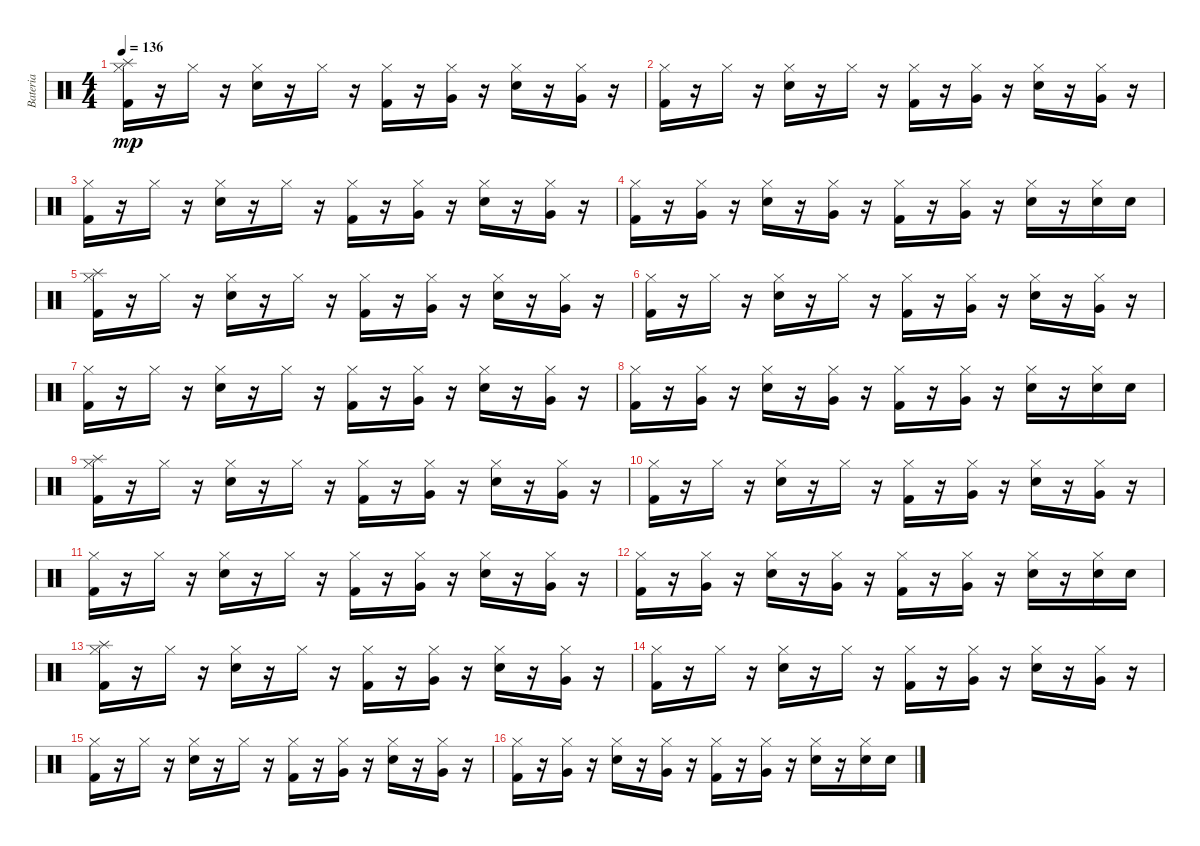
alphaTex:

\track ("Bateria" "Bateria") {instrument percussion}
\staff {score}
\articulation defaults
\ts (4 4)
\tempo 136
\clef neutral
\ks c
("Kick (hit) 2" "Hi-Hat (closed)" "Splash (hit)").16{dy mp} r.16 "Hi-Hat (closed)".16 r.16 ("Snare (hit) 2" "Hi-Hat (closed)").16 r.16 "Hi-Hat (closed)".16 r.16 ("Kick (hit) 2" "Hi-Hat (closed)").16 r.16 ("Hi-Hat (closed)" "Very Low Tom (hit)").16 r.16 ("Snare (hit) 2" "Hi-Hat (closed)").16 r.16 ("Hi-Hat (closed)" "Very Low Tom (hit)").16 r.16 |
("Kick (hit) 2" "Hi-Hat (closed)").16 r.16 "Hi-Hat (closed)".16 r.16 ("Snare (hit) 2" "Hi-Hat (closed)").16 r.16 "Hi-Hat (closed)".16 r.16 ("Kick (hit) 2" "Hi-Hat (closed)").16 r.16 ("Hi-Hat (closed)" "Very Low Tom (hit)").16 r.16 ("Snare (hit) 2" "Hi-Hat (closed)").16 r.16 ("Hi-Hat (closed)" "Very Low Tom (hit)").16 r.16 |
("Kick (hit) 2" "Hi-Hat (closed)").16 r.16 "Hi-Hat (closed)".16 r.16 ("Snare (hit) 2" "Hi-Hat (closed)").16 r.16 "Hi-Hat (closed)".16 r.16 ("Kick (hit) 2" "Hi-Hat (closed)").16 r.16 ("Hi-Hat (closed)" "Very Low Tom (hit)").16 r.16 ("Snare (hit) 2" "Hi-Hat (closed)").16 r.16 ("Hi-Hat (closed)" "Very Low Tom (hit)").16 r.16 |
("Kick (hit) 2" "Hi-Hat (closed)").16 r.16 ("Hi-Hat (closed)" "Very Low Tom (hit)").16 r.16 ("Snare (hit) 2" "Hi-Hat (closed)").16 r.16 ("Hi-Hat (closed)" "Very Low Tom (hit)").16 r.16 ("Kick (hit) 2" "Hi-Hat (closed)").16 r.16 ("Hi-Hat (closed)" "Very Low Tom (hit)").16 r.16 ("Snare (hit) 2" "Hi-Hat (closed)").16 r.16 ("Snare (hit) 2" "Hi-Hat (closed)").16 "Snare (hit) 2".16 |
("Kick (hit) 2" "Hi-Hat (closed)" "Splash (hit)").16 r.16 "Hi-Hat (closed)".16 r.16 ("Snare (hit) 2" "Hi-Hat (closed)").16 r.16 "Hi-Hat (closed)".16 r.16 ("Kick (hit) 2" "Hi-Hat (closed)").16 r.16 ("Hi-Hat (closed)" "Very Low Tom (hit)").16 r.16 ("Snare (hit) 2" "Hi-Hat (closed)").16 r.16 ("Hi-Hat (closed)" "Very Low Tom (hit)").16 r.16 |
("Kick (hit) 2" "Hi-Hat (closed)").16 r.16 "Hi-Hat (closed)".16 r.16 ("Snare (hit) 2" "Hi-Hat (closed)").16 r.16 "Hi-Hat (closed)".16 r.16 ("Kick (hit) 2" "Hi-Hat (closed)").16 r.16 ("Hi-Hat (closed)" "Very Low Tom (hit)").16 r.16 ("Snare (hit) 2" "Hi-Hat (closed)").16 r.16 ("Hi-Hat (closed)" "Very Low Tom (hit)").16 r.16 |
("Kick (hit) 2" "Hi-Hat (closed)").16 r.16 "Hi-Hat (closed)".16 r.16 ("Snare (hit) 2" "Hi-Hat (closed)").16 r.16 "Hi-Hat (closed)".16 r.16 ("Kick (hit) 2" "Hi-Hat (closed)").16 r.16 ("Hi-Hat (closed)" "Very Low Tom (hit)").16 r.16 ("Snare (hit) 2" "Hi-Hat (closed)").16 r.16 ("Hi-Hat (closed)" "Very Low Tom (hit)").16 r.16 |
("Kick (hit) 2" "Hi-Hat (closed)").16 r.16 ("Hi-Hat (closed)" "Very Low Tom (hit)").16 r.16 ("Snare (hit) 2" "Hi-Hat (closed)").16 r.16 ("Hi-Hat (closed)" "Very Low Tom (hit)").16 r.16 ("Kick (hit) 2" "Hi-Hat (closed)").16 r.16 ("Hi-Hat (closed)" "Very Low Tom (hit)").16 r.16 ("Snare (hit) 2" "Hi-Hat (closed)").16 r.16 ("Snare (hit) 2" "Hi-Hat (closed)").16 "Snare (hit) 2".16 |
("Kick (hit) 2" "Hi-Hat (closed)" "Splash (hit)").16 r.16 "Hi-Hat (closed)".16 r.16 ("Snare (hit) 2" "Hi-Hat (closed)").16 r.16 "Hi-Hat (closed)".16 r.16 ("Kick (hit) 2" "Hi-Hat (closed)").16 r.16 ("Hi-Hat (closed)" "Very Low Tom (hit)").16 r.16 ("Snare (hit) 2" "Hi-Hat (closed)").16 r.16 ("Hi-Hat (closed)" "Very Low Tom (hit)").16 r.16 |
("Kick (hit) 2" "Hi-Hat (closed)").16 r.16 "Hi-Hat (closed)".16 r.16 ("Snare (hit) 2" "Hi-Hat (closed)").16 r.16 "Hi-Hat (closed)".16 r.16 ("Kick (hit) 2" "Hi-Hat (closed)").16 r.16 ("Hi-Hat (closed)" "Very Low Tom (hit)").16 r.16 ("Snare (hit) 2" "Hi-Hat (closed)").16 r.16 ("Hi-Hat (closed)" "Very Low Tom (hit)").16 r.16 |
("Kick (hit) 2" "Hi-Hat (closed)").16 r.16 "Hi-Hat (closed)".16 r.16 ("Snare (hit) 2" "Hi-Hat (closed)").16 r.16 "Hi-Hat (closed)".16 r.16 ("Kick (hit) 2" "Hi-Hat (closed)").16 r.16 ("Hi-Hat (closed)" "Very Low Tom (hit)").16 r.16 ("Snare (hit) 2" "Hi-Hat (closed)").16 r.16 ("Hi-Hat (closed)" "Very Low Tom (hit)").16 r.16 |
("Kick (hit) 2" "Hi-Hat (closed)").16 r.16 ("Hi-Hat (closed)" "Very Low Tom (hit)").16 r.16 ("Snare (hit) 2" "Hi-Hat (closed)").16 r.16 ("Hi-Hat (closed)" "Very Low Tom (hit)").16 r.16 ("Kick (hit) 2" "Hi-Hat (closed)").16 r.16 ("Hi-Hat (closed)" "Very Low Tom (hit)").16 r.16 ("Snare (hit) 2" "Hi-Hat (closed)").16 r.16 ("Snare (hit) 2" "Hi-Hat (closed)").16 "Snare (hit) 2".16 |
("Kick (hit) 2" "Hi-Hat (closed)" "Splash (hit)").16 r.16 "Hi-Hat (closed)".16 r.16 ("Snare (hit) 2" "Hi-Hat (closed)").16 r.16 "Hi-Hat (closed)".16 r.16 ("Kick (hit) 2" "Hi-Hat (closed)").16 r.16 ("Hi-Hat (closed)" "Very Low Tom (hit)").16 r.16 ("Snare (hit) 2" "Hi-Hat (closed)").16 r.16 ("Hi-Hat (closed)" "Very Low Tom (hit)").16 r.16 |
("Kick (hit) 2" "Hi-Hat (closed)").16 r.16 "Hi-Hat (closed)".16 r.16 ("Snare (hit) 2" "Hi-Hat (closed)").16 r.16 "Hi-Hat (closed)".16 r.16 ("Kick (hit) 2" "Hi-Hat (closed)").16 r.16 ("Hi-Hat (closed)" "Very Low Tom (hit)").16 r.16 ("Snare (hit) 2" "Hi-Hat (closed)").16 r.16 ("Hi-Hat (closed)" "Very Low Tom (hit)").16 r.16 |
("Kick (hit) 2" "Hi-Hat (closed)").16 r.16 "Hi-Hat (closed)".16 r.16 ("Snare (hit) 2" "Hi-Hat (closed)").16 r.16 "Hi-Hat (closed)".16 r.16 ("Kick (hit) 2" "Hi-Hat (closed)").16 r.16 ("Hi-Hat (closed)" "Very Low Tom (hit)").16 r.16 ("Snare (hit) 2" "Hi-Hat (closed)").16 r.16 ("Hi-Hat (closed)" "Very Low Tom (hit)").16 r.16 |
("Kick (hit) 2" "Hi-Hat (closed)").16 r.16 ("Hi-Hat (closed)" "Very Low Tom (hit)").16 r.16 ("Snare (hit) 2" "Hi-Hat (closed)").16 r.16 ("Hi-Hat (closed)" "Very Low Tom (hit)").16 r.16 ("Kick (hit) 2" "Hi-Hat (closed)").16 r.16 ("Hi-Hat (closed)" "Very Low Tom (hit)").16 r.16 ("Snare (hit) 2" "Hi-Hat (closed)").16 r.16 ("Snare (hit) 2" "Hi-Hat (closed)").16 "Snare (hit) 2".16
